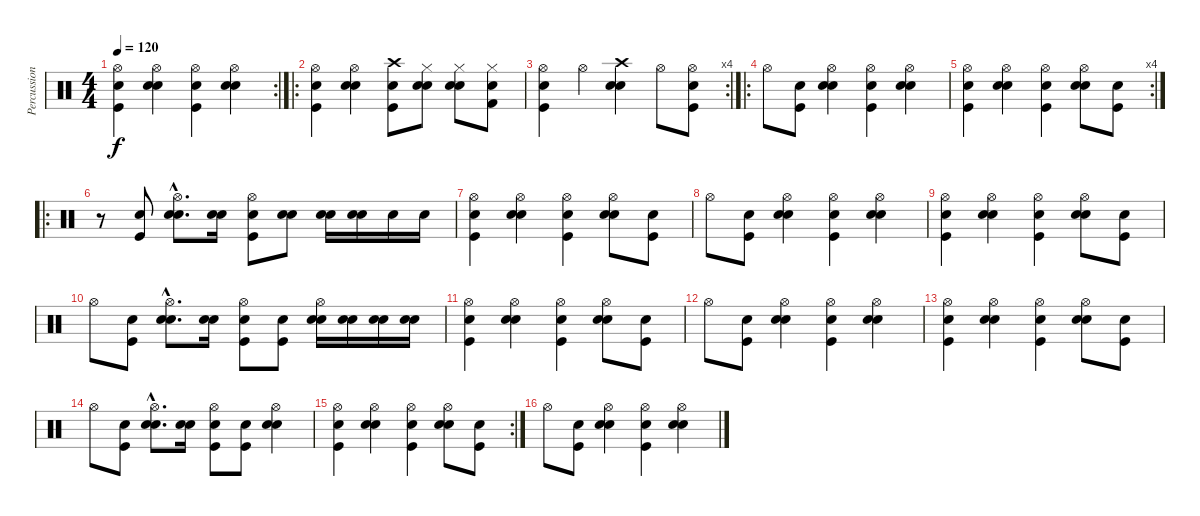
\track ("Percussion" "Percussion") {instrument percussion}
\staff {score}
\articulation defaults
\rc 2
\ts (4 4)
\tempo 120
\clef neutral
\ks c
("Hi-Hat (open)" "Snare (hit) 2" "Kick (hit)").4{dy f} ("Hi-Hat (open)" "Snare (hit) 2" "Electric Snare (hit)").4 ("Hi-Hat (open)" "Snare (hit) 2" "Kick (hit)").4 ("Hi-Hat (open)" "Snare (hit) 2" "Electric Snare (hit)").4 |
\ro
("Hi-Hat (open)" "Snare (hit) 2" "Kick (hit)").4 ("Hi-Hat (open)" "Snare (hit) 2" "Electric Snare (hit)").4 ("Crash high (hit)" "Snare (hit) 2" "Kick (hit)").8 ("Hi-Hat (closed)" "Snare (hit) 2" "Electric Snare (hit)").8 ("Hi-Hat (closed)" "Snare (hit) 2" "Snare (hit) 2").8 ("Hi-Hat (closed)" "Snare (hit) 2" "Kick (hit) 2").8 |
\rc 4
("Hi-Hat (open)" "Snare (hit) 2" "Kick (hit)").4 "Hi-Hat (open)".4 ("Crash high (hit)" "Snare (hit) 2" "Electric Snare (hit)").4 "Hi-Hat (open)".8 ("Hi-Hat (open)" "Snare (hit) 2" "Kick (hit)").8 |
\ro "Hi-Hat (open)".8
("Snare (hit) 2" "Kick (hit)").8 ("Hi-Hat (open)" "Snare (hit) 2" "Electric Snare (hit)").4 ("Hi-Hat (open)" "Snare (hit) 2" "Kick (hit)").4 ("Hi-Hat (open)" "Snare (hit) 2" "Electric Snare (hit)").4 |
\rc 4
("Hi-Hat (open)" "Snare (hit) 2" "Kick (hit)").4 ("Hi-Hat (open)" "Snare (hit) 2" "Electric Snare (hit)").4 ("Hi-Hat (open)" "Snare (hit) 2" "Kick (hit)").4 ("Hi-Hat (open)" "Snare (hit) 2" "Electric Snare (hit)").8 ("Snare (hit) 2" "Kick (hit)").8 |
\ro
r.8 ("Snare (hit) 2" "Kick (hit)").8 ("Hi-Hat (open)"{hac} "Snare (hit) 2"{hac} "Electric Snare (hit)"{hac}).8{d} ("Snare (hit) 2" "Electric Snare (hit)").16 ("Hi-Hat (open)" "Snare (hit) 2" "Kick (hit)").8 ("Snare (hit) 2" "Electric Snare (hit)").8 ("Snare (hit) 2" "Electric Snare (hit)").16 ("Snare (hit) 2" "Electric Snare (hit)").16 "Snare (hit) 2".16 "Snare (hit) 2".16 |
("Hi-Hat (open)" "Snare (hit) 2" "Kick (hit)").4 ("Hi-Hat (open)" "Snare (hit) 2" "Electric Snare (hit)").4 ("Hi-Hat (open)" "Snare (hit) 2" "Kick (hit)").4 ("Hi-Hat (open)" "Snare (hit) 2" "Electric Snare (hit)").8 ("Snare (hit) 2" "Kick (hit)").8 |
"Hi-Hat (open)".8 ("Snare (hit) 2" "Kick (hit)").8 ("Hi-Hat (open)" "Snare (hit) 2" "Electric Snare (hit)").4 ("Hi-Hat (open)" "Snare (hit) 2" "Kick (hit)").4 ("Hi-Hat (open)" "Snare (hit) 2" "Electric Snare (hit)").4 |
("Hi-Hat (open)" "Snare (hit) 2" "Kick (hit)").4 ("Hi-Hat (open)" "Snare (hit) 2" "Electric Snare (hit)").4 ("Hi-Hat (open)" "Snare (hit) 2" "Kick (hit)").4 ("Hi-Hat (open)" "Snare (hit) 2" "Electric Snare (hit)").8 ("Snare (hit) 2" "Kick (hit)").8 |
"Hi-Hat (open)".8 ("Snare (hit) 2" "Kick (hit)").8 ("Hi-Hat (open)"{hac} "Snare (hit) 2"{hac} "Electric Snare (hit)"{hac}).8{d} ("Snare (hit) 2" "Electric Snare (hit)").16 ("Hi-Hat (open)" "Snare (hit) 2" "Kick (hit)").8 ("Snare (hit) 2" "Kick (hit)").8 ("Hi-Hat (open)" "Snare (hit) 2" "Electric Snare (hit)").16 ("Snare (hit) 2" "Electric Snare (hit)").16 ("Snare (hit) 2" "Electric Snare (hit)").16 ("Snare (hit) 2" "Electric Snare (hit)").16 |
("Hi-Hat (open)" "Snare (hit) 2" "Kick (hit)").4 ("Hi-Hat (open)" "Snare (hit) 2" "Electric Snare (hit)").4 ("Hi-Hat (open)" "Snare (hit) 2" "Kick (hit)").4 ("Hi-Hat (open)" "Snare (hit) 2" "Electric Snare (hit)").8 ("Snare (hit) 2" "Kick (hit)").8 |
"Hi-Hat (open)".8 ("Snare (hit) 2" "Kick (hit)").8 ("Hi-Hat (open)" "Snare (hit) 2" "Electric Snare (hit)").4 ("Hi-Hat (open)" "Snare (hit) 2" "Kick (hit)").4 ("Hi-Hat (open)" "Snare (hit) 2" "Electric Snare (hit)").4 |
("Hi-Hat (open)" "Snare (hit) 2" "Kick (hit)").4 ("Hi-Hat (open)" "Snare (hit) 2" "Electric Snare (hit)").4 ("Hi-Hat (open)" "Snare (hit) 2" "Kick (hit)").4 ("Hi-Hat (open)" "Snare (hit) 2" "Electric Snare (hit)").8 ("Snare (hit) 2" "Kick (hit)").8 |
"Hi-Hat (open)".8 ("Snare (hit) 2" "Kick (hit)").8 ("Hi-Hat (open)"{hac} "Snare (hit) 2"{hac} "Electric Snare (hit)"{hac}).8{d} ("Snare (hit) 2" "Electric Snare (hit)").16 ("Hi-Hat (open)" "Snare (hit) 2" "Kick (hit)").8 ("Snare (hit) 2" "Kick (hit)").8 ("Hi-Hat (open)" "Snare (hit) 2" "Electric Snare (hit)").4 |
\rc 2
("Hi-Hat (open)" "Snare (hit) 2" "Kick (hit)").4 ("Hi-Hat (open)" "Snare (hit) 2" "Electric Snare (hit)").4 ("Hi-Hat (open)" "Snare (hit) 2" "Kick (hit)").4 ("Hi-Hat (open)" "Snare (hit) 2" "Electric Snare (hit)").8 ("Snare (hit) 2" "Kick (hit)").8 |
"Hi-Hat (open)".8 ("Snare (hit) 2" "Kick (hit)").8 ("Hi-Hat (open)" "Snare (hit) 2" "Electric Snare (hit)").4 ("Hi-Hat (open)" "Snare (hit) 2" "Kick (hit)").4 ("Hi-Hat (open)" "Snare (hit) 2" "Electric Snare (hit)").4
